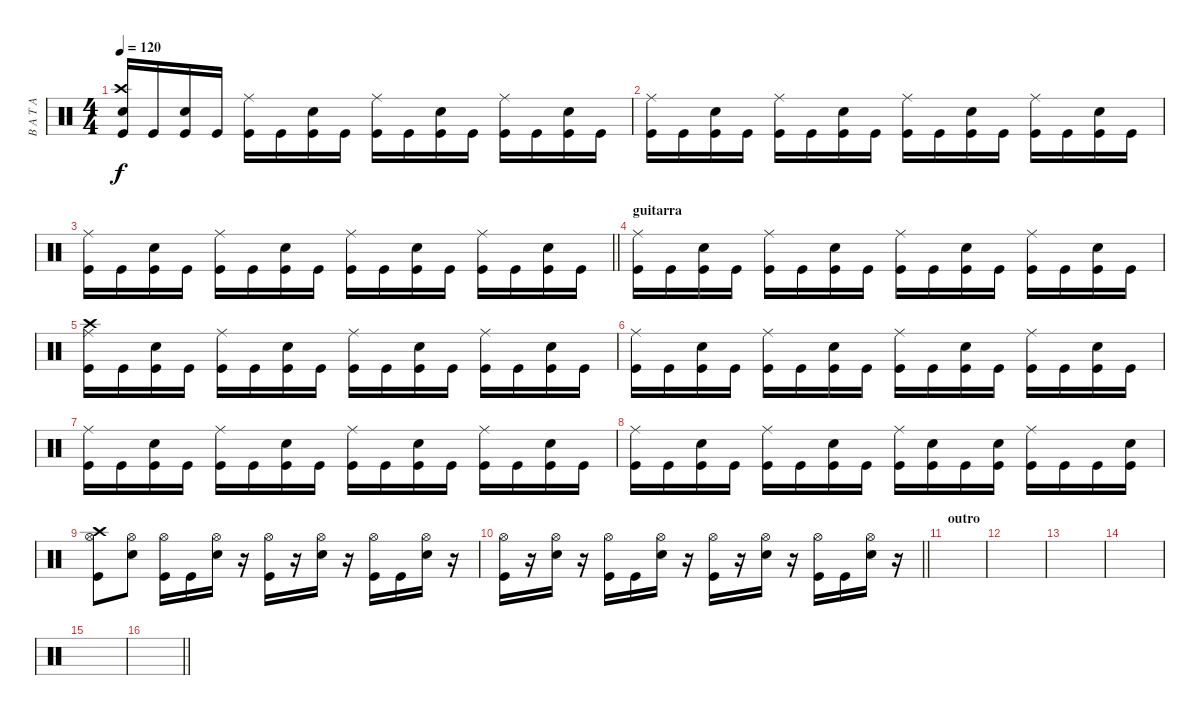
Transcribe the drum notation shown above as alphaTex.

\track ("B A T A " "B A T A ") {instrument percussion}
\staff {score}
\articulation defaults
\ts (4 4)
\tempo 120
\clef neutral
\ks c
("Kick (hit)" "Crash high (hit)" "Electric Snare (hit)").16{dy f volume 10 balance 6} "Kick (hit)".16 ("Electric Snare (hit)" "Kick (hit)").16 "Kick (hit)".16 ("Kick (hit)" "Ride (middle)").16 "Kick (hit)".16 ("Kick (hit)" "Electric Snare (hit)").16 "Kick (hit)".16 ("Ride (middle)" "Kick (hit)").16 "Kick (hit)".16 ("Kick (hit)" "Electric Snare (hit)").16 "Kick (hit)".16 ("Ride (middle)" "Kick (hit)").16 "Kick (hit)".16 ("Kick (hit)" "Electric Snare (hit)").16 "Kick (hit)".16 |
("Ride (middle)" "Kick (hit)").16 "Kick (hit)".16 ("Kick (hit)" "Electric Snare (hit)").16 "Kick (hit)".16 ("Ride (middle)" "Kick (hit)").16 "Kick (hit)".16 ("Kick (hit)" "Electric Snare (hit)").16 "Kick (hit)".16 ("Ride (middle)" "Kick (hit)").16 "Kick (hit)".16 ("Kick (hit)" "Electric Snare (hit)").16 "Kick (hit)".16 ("Ride (middle)" "Kick (hit)").16 "Kick (hit)".16 ("Kick (hit)" "Electric Snare (hit)").16 "Kick (hit)".16 |
\barLineRight lightlight
("Ride (middle)" "Kick (hit)").16 "Kick (hit)".16 ("Kick (hit)" "Electric Snare (hit)").16 "Kick (hit)".16 ("Ride (middle)" "Kick (hit)").16 "Kick (hit)".16 ("Kick (hit)" "Electric Snare (hit)").16 "Kick (hit)".16 ("Ride (middle)" "Kick (hit)").16 "Kick (hit)".16 ("Kick (hit)" "Electric Snare (hit)").16 "Kick (hit)".16 ("Ride (middle)" "Kick (hit)").16 "Kick (hit)".16 ("Kick (hit)" "Electric Snare (hit)").16 "Kick (hit)".16 |
\section ("" "guitarra")
("Ride (middle)" "Kick (hit)").16 "Kick (hit)".16 ("Kick (hit)" "Electric Snare (hit)").16 "Kick (hit)".16 ("Ride (middle)" "Kick (hit)").16 "Kick (hit)".16 ("Kick (hit)" "Electric Snare (hit)").16 "Kick (hit)".16 ("Ride (middle)" "Kick (hit)").16 "Kick (hit)".16 ("Kick (hit)" "Electric Snare (hit)").16 "Kick (hit)".16 ("Ride (middle)" "Kick (hit)").16 "Kick (hit)".16 ("Kick (hit)" "Electric Snare (hit)").16 "Kick (hit)".16 |
("Crash high (hit)" "Ride (middle)" "Kick (hit)").16{volume 14 balance 8} "Kick (hit)".16 ("Kick (hit)" "Electric Snare (hit)").16 "Kick (hit)".16 ("Ride (middle)" "Kick (hit)").16 "Kick (hit)".16 ("Kick (hit)" "Electric Snare (hit)").16 "Kick (hit)".16 ("Ride (middle)" "Kick (hit)").16 "Kick (hit)".16 ("Kick (hit)" "Electric Snare (hit)").16 "Kick (hit)".16 ("Ride (middle)" "Kick (hit)").16 "Kick (hit)".16 ("Kick (hit)" "Electric Snare (hit)").16 "Kick (hit)".16 |
("Ride (middle)" "Kick (hit)").16 "Kick (hit)".16 ("Kick (hit)" "Electric Snare (hit)").16 "Kick (hit)".16 ("Ride (middle)" "Kick (hit)").16 "Kick (hit)".16 ("Kick (hit)" "Electric Snare (hit)").16 "Kick (hit)".16 ("Ride (middle)" "Kick (hit)").16 "Kick (hit)".16 ("Kick (hit)" "Electric Snare (hit)").16 "Kick (hit)".16 ("Ride (middle)" "Kick (hit)").16 "Kick (hit)".16 ("Kick (hit)" "Electric Snare (hit)").16 "Kick (hit)".16 |
("Ride (middle)" "Kick (hit)").16 "Kick (hit)".16 ("Kick (hit)" "Electric Snare (hit)").16 "Kick (hit)".16 ("Ride (middle)" "Kick (hit)").16 "Kick (hit)".16 ("Kick (hit)" "Electric Snare (hit)").16 "Kick (hit)".16 ("Ride (middle)" "Kick (hit)").16 "Kick (hit)".16 ("Kick (hit)" "Electric Snare (hit)").16 "Kick (hit)".16 ("Ride (middle)" "Kick (hit)").16 "Kick (hit)".16 ("Kick (hit)" "Electric Snare (hit)").16 "Kick (hit)".16 |
("Ride (middle)" "Kick (hit)").16 "Kick (hit)".16 ("Kick (hit)" "Electric Snare (hit)").16 "Kick (hit)".16 ("Ride (middle)" "Kick (hit)").16 "Kick (hit)".16 ("Electric Snare (hit)" "Kick (hit)").16 "Kick (hit)".16 ("Ride (middle)" "Kick (hit)").16 ("Snare (hit) 2" "Kick (hit)").16 "Kick (hit)".16 ("Electric Snare (hit)" "Kick (hit)").16 ("Ride (middle)" "Kick (hit)").16 "Kick (hit)".16 "Kick (hit)".16 ("Electric Snare (hit)" "Kick (hit)").16 |
("Crash high (hit)" "Hi-Hat (open)" "Kick (hit)").8{volume 14 balance 8} ("Electric Snare (hit)" "Hi-Hat (open)").8 ("Kick (hit)" "Hi-Hat (open)").16 "Kick (hit)".16 ("Electric Snare (hit)" "Hi-Hat (open)").16 r.16 ("Kick (hit)" "Hi-Hat (open)").16 r.16 ("Electric Snare (hit)" "Hi-Hat (open)").16 r.16 ("Kick (hit)" "Hi-Hat (open)").16 "Kick (hit)".16 ("Electric Snare (hit)" "Hi-Hat (open)").16 r.16 |
\barLineRight lightlight
("Hi-Hat (open)" "Kick (hit)").16{volume 14 balance 8} r.16 ("Electric Snare (hit)" "Hi-Hat (open)").16 r.16 ("Kick (hit)" "Hi-Hat (open)").16 "Kick (hit)".16 ("Electric Snare (hit)" "Hi-Hat (open)").16 r.16 ("Kick (hit)" "Hi-Hat (open)").16 r.16 ("Electric Snare (hit)" "Hi-Hat (open)").16 r.16 ("Kick (hit)" "Hi-Hat (open)").16 "Kick (hit)".16 ("Electric Snare (hit)" "Hi-Hat (open)").16 r.16 |
\section ("" "outro")
|
|
|
|
|
\barLineRight lightlight
